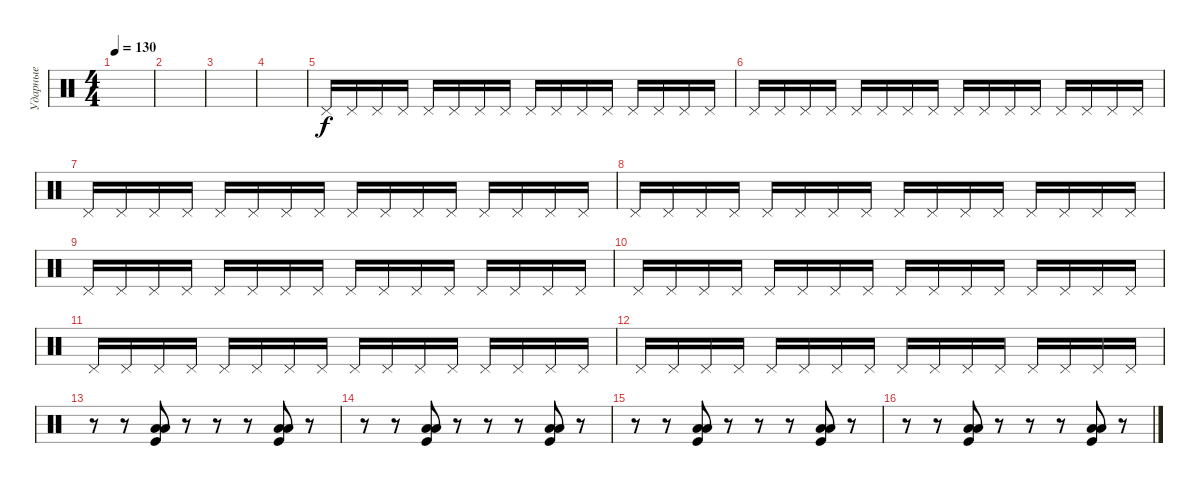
\track ("Ударные" "Ударные") {instrument percussion}
\staff {score}
\articulation defaults
\ts (4 4)
\tempo 130
\clef neutral
\ks c
|
|
|
|
"Pedal Hi-Hat (hit)".16 "Pedal Hi-Hat (hit)".16 "Pedal Hi-Hat (hit)".16 "Pedal Hi-Hat (hit)".16 "Pedal Hi-Hat (hit)".16 "Pedal Hi-Hat (hit)".16 "Pedal Hi-Hat (hit)".16 "Pedal Hi-Hat (hit)".16 "Pedal Hi-Hat (hit)".16 "Pedal Hi-Hat (hit)".16 "Pedal Hi-Hat (hit)".16 "Pedal Hi-Hat (hit)".16 "Pedal Hi-Hat (hit)".16 "Pedal Hi-Hat (hit)".16 "Pedal Hi-Hat (hit)".16 "Pedal Hi-Hat (hit)".16 |
"Pedal Hi-Hat (hit)".16 "Pedal Hi-Hat (hit)".16 "Pedal Hi-Hat (hit)".16 "Pedal Hi-Hat (hit)".16 "Pedal Hi-Hat (hit)".16 "Pedal Hi-Hat (hit)".16 "Pedal Hi-Hat (hit)".16 "Pedal Hi-Hat (hit)".16 "Pedal Hi-Hat (hit)".16 "Pedal Hi-Hat (hit)".16 "Pedal Hi-Hat (hit)".16 "Pedal Hi-Hat (hit)".16 "Pedal Hi-Hat (hit)".16 "Pedal Hi-Hat (hit)".16 "Pedal Hi-Hat (hit)".16 "Pedal Hi-Hat (hit)".16 |
"Pedal Hi-Hat (hit)".16 "Pedal Hi-Hat (hit)".16 "Pedal Hi-Hat (hit)".16 "Pedal Hi-Hat (hit)".16 "Pedal Hi-Hat (hit)".16 "Pedal Hi-Hat (hit)".16 "Pedal Hi-Hat (hit)".16 "Pedal Hi-Hat (hit)".16 "Pedal Hi-Hat (hit)".16 "Pedal Hi-Hat (hit)".16 "Pedal Hi-Hat (hit)".16 "Pedal Hi-Hat (hit)".16 "Pedal Hi-Hat (hit)".16 "Pedal Hi-Hat (hit)".16 "Pedal Hi-Hat (hit)".16 "Pedal Hi-Hat (hit)".16 |
"Pedal Hi-Hat (hit)".16 "Pedal Hi-Hat (hit)".16 "Pedal Hi-Hat (hit)".16 "Pedal Hi-Hat (hit)".16 "Pedal Hi-Hat (hit)".16 "Pedal Hi-Hat (hit)".16 "Pedal Hi-Hat (hit)".16 "Pedal Hi-Hat (hit)".16 "Pedal Hi-Hat (hit)".16 "Pedal Hi-Hat (hit)".16 "Pedal Hi-Hat (hit)".16 "Pedal Hi-Hat (hit)".16 "Pedal Hi-Hat (hit)".16 "Pedal Hi-Hat (hit)".16 "Pedal Hi-Hat (hit)".16 "Pedal Hi-Hat (hit)".16 |
"Pedal Hi-Hat (hit)".16 "Pedal Hi-Hat (hit)".16 "Pedal Hi-Hat (hit)".16 "Pedal Hi-Hat (hit)".16 "Pedal Hi-Hat (hit)".16 "Pedal Hi-Hat (hit)".16 "Pedal Hi-Hat (hit)".16 "Pedal Hi-Hat (hit)".16 "Pedal Hi-Hat (hit)".16 "Pedal Hi-Hat (hit)".16 "Pedal Hi-Hat (hit)".16 "Pedal Hi-Hat (hit)".16 "Pedal Hi-Hat (hit)".16 "Pedal Hi-Hat (hit)".16 "Pedal Hi-Hat (hit)".16 "Pedal Hi-Hat (hit)".16 |
"Pedal Hi-Hat (hit)".16 "Pedal Hi-Hat (hit)".16 "Pedal Hi-Hat (hit)".16 "Pedal Hi-Hat (hit)".16 "Pedal Hi-Hat (hit)".16 "Pedal Hi-Hat (hit)".16 "Pedal Hi-Hat (hit)".16 "Pedal Hi-Hat (hit)".16 "Pedal Hi-Hat (hit)".16 "Pedal Hi-Hat (hit)".16 "Pedal Hi-Hat (hit)".16 "Pedal Hi-Hat (hit)".16 "Pedal Hi-Hat (hit)".16 "Pedal Hi-Hat (hit)".16 "Pedal Hi-Hat (hit)".16 "Pedal Hi-Hat (hit)".16 |
"Pedal Hi-Hat (hit)".16 "Pedal Hi-Hat (hit)".16 "Pedal Hi-Hat (hit)".16 "Pedal Hi-Hat (hit)".16 "Pedal Hi-Hat (hit)".16 "Pedal Hi-Hat (hit)".16 "Pedal Hi-Hat (hit)".16 "Pedal Hi-Hat (hit)".16 "Pedal Hi-Hat (hit)".16 "Pedal Hi-Hat (hit)".16 "Pedal Hi-Hat (hit)".16 "Pedal Hi-Hat (hit)".16 "Pedal Hi-Hat (hit)".16 "Pedal Hi-Hat (hit)".16 "Pedal Hi-Hat (hit)".16 "Pedal Hi-Hat (hit)".16 |
"Pedal Hi-Hat (hit)".16 "Pedal Hi-Hat (hit)".16 "Pedal Hi-Hat (hit)".16 "Pedal Hi-Hat (hit)".16 "Pedal Hi-Hat (hit)".16 "Pedal Hi-Hat (hit)".16 "Pedal Hi-Hat (hit)".16 "Pedal Hi-Hat (hit)".16 "Pedal Hi-Hat (hit)".16 "Pedal Hi-Hat (hit)".16 "Pedal Hi-Hat (hit)".16 "Pedal Hi-Hat (hit)".16 "Pedal Hi-Hat (hit)".16 "Pedal Hi-Hat (hit)".16 "Pedal Hi-Hat (hit)".16 "Pedal Hi-Hat (hit)".16 |
r.8 r.8 ("Kick (hit)" "Low Tom (hit)" "Low Floor Tom (hit)").8 r.8 r.8 r.8 ("Kick (hit)" "Low Tom (hit)" "Low Floor Tom (hit)").8 r.8 |
r.8 r.8 ("Kick (hit)" "Low Tom (hit)" "Low Floor Tom (hit)").8 r.8 r.8 r.8 ("Kick (hit)" "Low Tom (hit)" "Low Floor Tom (hit)").8 r.8 |
r.8 r.8 ("Kick (hit)" "Low Tom (hit)" "Low Floor Tom (hit)").8 r.8 r.8 r.8 ("Kick (hit)" "Low Tom (hit)" "Low Floor Tom (hit)").8 r.8 |
r.8 r.8 ("Kick (hit)" "Low Tom (hit)" "Low Floor Tom (hit)").8 r.8 r.8 r.8 ("Kick (hit)" "Low Tom (hit)" "Low Floor Tom (hit)").8 r.8
